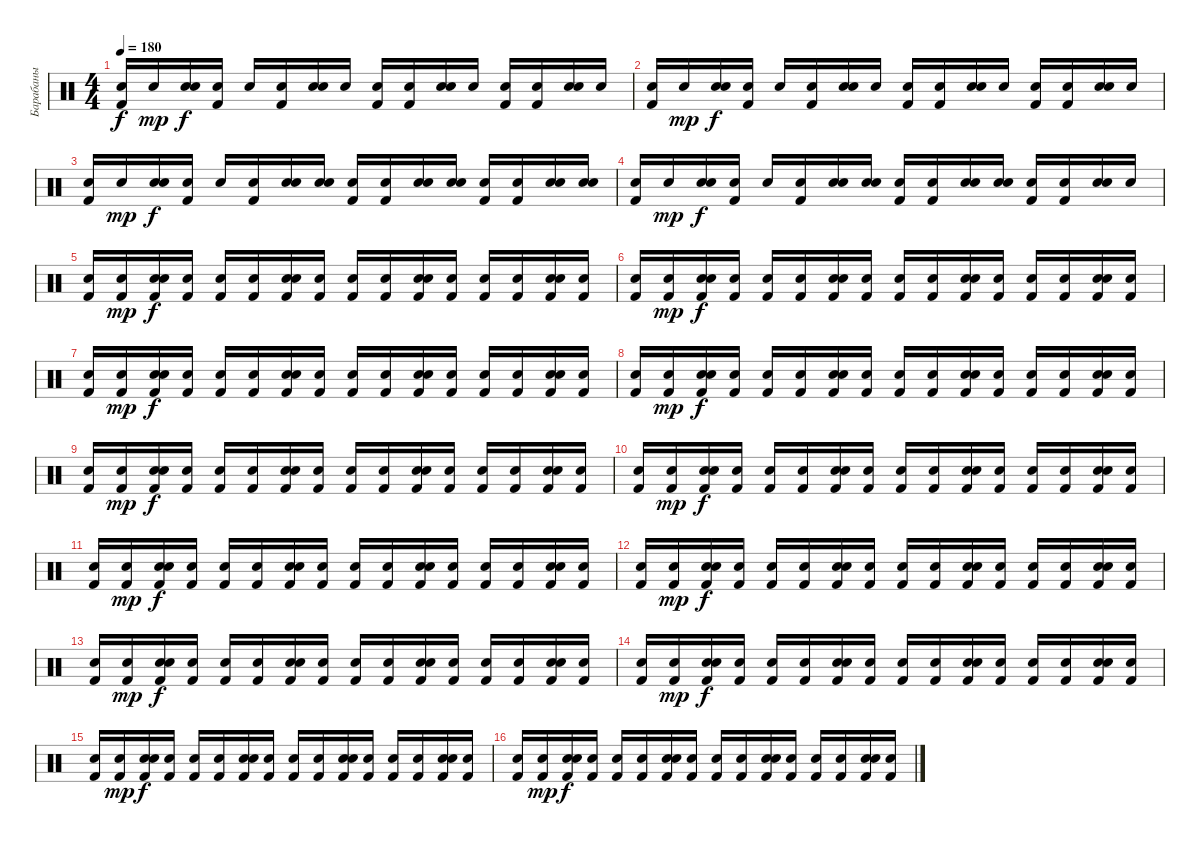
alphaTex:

\track ("Барабаны" "Барабаны") {instrument percussion}
\staff {score}
\articulation defaults
\ts (4 4)
\tempo 180
\clef neutral
\ks c
("Snare (hit)" "Kick (hit) 2").16{dy f} "Snare (hit)".16{dy mp} ("Snare (hit)" "Snare (hit) 2").16{dy f} ("Snare (hit)" "Kick (hit) 2").16 "Snare (hit)".16 ("Snare (hit)" "Kick (hit) 2").16 ("Snare (hit)" "Snare (hit) 2").16 "Snare (hit)".16 ("Snare (hit)" "Kick (hit) 2").16 ("Snare (hit)" "Kick (hit) 2").16 ("Snare (hit)" "Snare (hit) 2").16 "Snare (hit)".16 ("Snare (hit)" "Kick (hit) 2").16 ("Snare (hit)" "Kick (hit) 2").16 ("Snare (hit)" "Snare (hit) 2").16 "Snare (hit)".16 |
("Snare (hit)" "Kick (hit) 2").16 "Snare (hit)".16{dy mp} ("Snare (hit)" "Snare (hit) 2").16{dy f} ("Snare (hit)" "Kick (hit) 2").16 "Snare (hit)".16 ("Snare (hit)" "Kick (hit) 2").16 ("Snare (hit)" "Snare (hit) 2").16 "Snare (hit)".16 ("Snare (hit)" "Kick (hit) 2").16 ("Snare (hit)" "Kick (hit) 2").16 ("Snare (hit)" "Snare (hit) 2").16 "Snare (hit)".16 ("Snare (hit)" "Kick (hit) 2").16 ("Snare (hit)" "Kick (hit) 2").16 ("Snare (hit)" "Snare (hit) 2").16 "Snare (hit)".16 |
("Snare (hit)" "Kick (hit) 2").16 "Snare (hit)".16{dy mp} ("Snare (hit)" "Snare (hit) 2").16{dy f} ("Snare (hit)" "Kick (hit) 2").16 "Snare (hit)".16 ("Snare (hit)" "Kick (hit) 2").16 ("Snare (hit)" "Snare (hit) 2").16 ("Snare (hit)" "Snare (hit)").16 ("Snare (hit)" "Kick (hit) 2").16 ("Snare (hit)" "Kick (hit) 2").16 ("Snare (hit)" "Snare (hit) 2").16 ("Snare (hit)" "Snare (hit)").16 ("Snare (hit)" "Kick (hit) 2").16 ("Snare (hit)" "Kick (hit) 2").16 ("Snare (hit)" "Snare (hit) 2").16 ("Snare (hit)" "Snare (hit)").16 |
("Snare (hit)" "Kick (hit) 2").16 "Snare (hit)".16{dy mp} ("Snare (hit)" "Snare (hit) 2").16{dy f} ("Snare (hit)" "Kick (hit) 2").16 "Snare (hit)".16 ("Snare (hit)" "Kick (hit) 2").16 ("Snare (hit)" "Snare (hit) 2").16 ("Snare (hit)" "Snare (hit)").16 ("Snare (hit)" "Kick (hit) 2").16 ("Snare (hit)" "Kick (hit) 2").16 ("Snare (hit)" "Snare (hit) 2").16 ("Snare (hit)" "Snare (hit)").16 ("Snare (hit)" "Kick (hit) 2").16 ("Snare (hit)" "Kick (hit) 2").16 ("Snare (hit)" "Snare (hit) 2").16 "Snare (hit)".16 |
("Snare (hit)" "Kick (hit) 2").16 ("Snare (hit)" "Kick (hit) 2").16{dy mp} ("Snare (hit)" "Snare (hit) 2" "Kick (hit) 2").16{dy f} ("Snare (hit)" "Kick (hit) 2").16 ("Snare (hit)" "Kick (hit) 2").16 ("Snare (hit)" "Kick (hit) 2").16 ("Snare (hit)" "Snare (hit) 2" "Kick (hit) 2").16 ("Snare (hit)" "Kick (hit) 2").16 ("Snare (hit)" "Kick (hit) 2").16 ("Snare (hit)" "Kick (hit) 2").16 ("Snare (hit)" "Snare (hit) 2" "Kick (hit) 2").16 ("Snare (hit)" "Kick (hit) 2").16 ("Snare (hit)" "Kick (hit) 2").16 ("Snare (hit)" "Kick (hit) 2").16 ("Snare (hit)" "Snare (hit) 2" "Kick (hit) 2").16 ("Snare (hit)" "Kick (hit) 2").16 |
("Snare (hit)" "Kick (hit) 2").16 ("Snare (hit)" "Kick (hit) 2").16{dy mp} ("Snare (hit)" "Snare (hit) 2" "Kick (hit) 2").16{dy f} ("Snare (hit)" "Kick (hit) 2").16 ("Snare (hit)" "Kick (hit) 2").16 ("Snare (hit)" "Kick (hit) 2").16 ("Snare (hit)" "Snare (hit) 2" "Kick (hit) 2").16 ("Snare (hit)" "Kick (hit) 2").16 ("Snare (hit)" "Kick (hit) 2").16 ("Snare (hit)" "Kick (hit) 2").16 ("Snare (hit)" "Snare (hit) 2" "Kick (hit) 2").16 ("Snare (hit)" "Kick (hit) 2").16 ("Snare (hit)" "Kick (hit) 2").16 ("Snare (hit)" "Kick (hit) 2").16 ("Snare (hit)" "Snare (hit) 2" "Kick (hit) 2").16 ("Snare (hit)" "Kick (hit) 2").16 |
("Snare (hit)" "Kick (hit) 2").16 ("Snare (hit)" "Kick (hit) 2").16{dy mp} ("Snare (hit)" "Snare (hit) 2" "Kick (hit) 2").16{dy f} ("Snare (hit)" "Kick (hit) 2").16 ("Snare (hit)" "Kick (hit) 2").16 ("Snare (hit)" "Kick (hit) 2").16 ("Snare (hit)" "Snare (hit) 2" "Kick (hit) 2").16 ("Snare (hit)" "Kick (hit) 2").16 ("Snare (hit)" "Kick (hit) 2").16 ("Snare (hit)" "Kick (hit) 2").16 ("Snare (hit)" "Snare (hit) 2" "Kick (hit) 2").16 ("Snare (hit)" "Kick (hit) 2").16 ("Snare (hit)" "Kick (hit) 2").16 ("Snare (hit)" "Kick (hit) 2").16 ("Snare (hit)" "Snare (hit) 2" "Kick (hit) 2").16 ("Snare (hit)" "Kick (hit) 2").16 |
("Snare (hit)" "Kick (hit) 2").16 ("Snare (hit)" "Kick (hit) 2").16{dy mp} ("Snare (hit)" "Snare (hit) 2" "Kick (hit) 2").16{dy f} ("Snare (hit)" "Kick (hit) 2").16 ("Snare (hit)" "Kick (hit) 2").16 ("Snare (hit)" "Kick (hit) 2").16 ("Snare (hit)" "Snare (hit) 2" "Kick (hit) 2").16 ("Snare (hit)" "Kick (hit) 2").16 ("Snare (hit)" "Kick (hit) 2").16 ("Snare (hit)" "Kick (hit) 2").16 ("Snare (hit)" "Snare (hit) 2" "Kick (hit) 2").16 ("Snare (hit)" "Kick (hit) 2").16 ("Snare (hit)" "Kick (hit) 2").16 ("Snare (hit)" "Kick (hit) 2").16 ("Snare (hit)" "Snare (hit) 2" "Kick (hit) 2").16 ("Snare (hit)" "Kick (hit) 2").16 |
("Snare (hit)" "Kick (hit) 2").16 ("Snare (hit)" "Kick (hit) 2").16{dy mp} ("Snare (hit)" "Snare (hit) 2" "Kick (hit) 2").16{dy f} ("Snare (hit)" "Kick (hit) 2").16 ("Snare (hit)" "Kick (hit) 2").16 ("Snare (hit)" "Kick (hit) 2").16 ("Snare (hit)" "Snare (hit) 2" "Kick (hit) 2").16 ("Snare (hit)" "Kick (hit) 2").16 ("Snare (hit)" "Kick (hit) 2").16 ("Snare (hit)" "Kick (hit) 2").16 ("Snare (hit)" "Snare (hit) 2" "Kick (hit) 2").16 ("Snare (hit)" "Kick (hit) 2").16 ("Snare (hit)" "Kick (hit) 2").16 ("Snare (hit)" "Kick (hit) 2").16 ("Snare (hit)" "Snare (hit) 2" "Kick (hit) 2").16 ("Snare (hit)" "Kick (hit) 2").16 |
("Snare (hit)" "Kick (hit) 2").16 ("Snare (hit)" "Kick (hit) 2").16{dy mp} ("Snare (hit)" "Snare (hit) 2" "Kick (hit) 2").16{dy f} ("Snare (hit)" "Kick (hit) 2").16 ("Snare (hit)" "Kick (hit) 2").16 ("Snare (hit)" "Kick (hit) 2").16 ("Snare (hit)" "Snare (hit) 2" "Kick (hit) 2").16 ("Snare (hit)" "Kick (hit) 2").16 ("Snare (hit)" "Kick (hit) 2").16 ("Snare (hit)" "Kick (hit) 2").16 ("Snare (hit)" "Snare (hit) 2" "Kick (hit) 2").16 ("Snare (hit)" "Kick (hit) 2").16 ("Snare (hit)" "Kick (hit) 2").16 ("Snare (hit)" "Kick (hit) 2").16 ("Snare (hit)" "Snare (hit) 2" "Kick (hit) 2").16 ("Snare (hit)" "Kick (hit) 2").16 |
("Snare (hit)" "Kick (hit) 2").16 ("Snare (hit)" "Kick (hit) 2").16{dy mp} ("Snare (hit)" "Snare (hit) 2" "Kick (hit) 2").16{dy f} ("Snare (hit)" "Kick (hit) 2").16 ("Snare (hit)" "Kick (hit) 2").16 ("Snare (hit)" "Kick (hit) 2").16 ("Snare (hit)" "Snare (hit) 2" "Kick (hit) 2").16 ("Snare (hit)" "Kick (hit) 2").16 ("Snare (hit)" "Kick (hit) 2").16 ("Snare (hit)" "Kick (hit) 2").16 ("Snare (hit)" "Snare (hit) 2" "Kick (hit) 2").16 ("Snare (hit)" "Kick (hit) 2").16 ("Snare (hit)" "Kick (hit) 2").16 ("Snare (hit)" "Kick (hit) 2").16 ("Snare (hit)" "Snare (hit) 2" "Kick (hit) 2").16 ("Snare (hit)" "Kick (hit) 2").16 |
("Snare (hit)" "Kick (hit) 2").16 ("Snare (hit)" "Kick (hit) 2").16{dy mp} ("Snare (hit)" "Snare (hit) 2" "Kick (hit) 2").16{dy f} ("Snare (hit)" "Kick (hit) 2").16 ("Snare (hit)" "Kick (hit) 2").16 ("Snare (hit)" "Kick (hit) 2").16 ("Snare (hit)" "Snare (hit) 2" "Kick (hit) 2").16 ("Snare (hit)" "Kick (hit) 2").16 ("Snare (hit)" "Kick (hit) 2").16 ("Snare (hit)" "Kick (hit) 2").16 ("Snare (hit)" "Snare (hit) 2" "Kick (hit) 2").16 ("Snare (hit)" "Kick (hit) 2").16 ("Snare (hit)" "Kick (hit) 2").16 ("Snare (hit)" "Kick (hit) 2").16 ("Snare (hit)" "Snare (hit) 2" "Kick (hit) 2").16 ("Snare (hit)" "Kick (hit) 2").16 |
("Snare (hit)" "Kick (hit) 2").16 ("Snare (hit)" "Kick (hit) 2").16{dy mp} ("Snare (hit)" "Snare (hit) 2" "Kick (hit) 2").16{dy f} ("Snare (hit)" "Kick (hit) 2").16 ("Snare (hit)" "Kick (hit) 2").16 ("Snare (hit)" "Kick (hit) 2").16 ("Snare (hit)" "Snare (hit) 2" "Kick (hit) 2").16 ("Snare (hit)" "Kick (hit) 2").16 ("Snare (hit)" "Kick (hit) 2").16 ("Snare (hit)" "Kick (hit) 2").16 ("Snare (hit)" "Snare (hit) 2" "Kick (hit) 2").16 ("Snare (hit)" "Kick (hit) 2").16 ("Snare (hit)" "Kick (hit) 2").16 ("Snare (hit)" "Kick (hit) 2").16 ("Snare (hit)" "Snare (hit) 2" "Kick (hit) 2").16 ("Snare (hit)" "Kick (hit) 2").16 |
("Snare (hit)" "Kick (hit) 2").16 ("Snare (hit)" "Kick (hit) 2").16{dy mp} ("Snare (hit)" "Snare (hit) 2" "Kick (hit) 2").16{dy f} ("Snare (hit)" "Kick (hit) 2").16 ("Snare (hit)" "Kick (hit) 2").16 ("Snare (hit)" "Kick (hit) 2").16 ("Snare (hit)" "Snare (hit) 2" "Kick (hit) 2").16 ("Snare (hit)" "Kick (hit) 2").16 ("Snare (hit)" "Kick (hit) 2").16 ("Snare (hit)" "Kick (hit) 2").16 ("Snare (hit)" "Snare (hit) 2" "Kick (hit) 2").16 ("Snare (hit)" "Kick (hit) 2").16 ("Snare (hit)" "Kick (hit) 2").16 ("Snare (hit)" "Kick (hit) 2").16 ("Snare (hit)" "Snare (hit) 2" "Kick (hit) 2").16 ("Snare (hit)" "Kick (hit) 2").16 |
("Snare (hit)" "Kick (hit) 2").16 ("Snare (hit)" "Kick (hit) 2").16{dy mp} ("Snare (hit)" "Snare (hit) 2" "Kick (hit) 2").16{dy f} ("Snare (hit)" "Kick (hit) 2").16 ("Snare (hit)" "Kick (hit) 2").16 ("Snare (hit)" "Kick (hit) 2").16 ("Snare (hit)" "Snare (hit) 2" "Kick (hit) 2").16 ("Snare (hit)" "Kick (hit) 2").16 ("Snare (hit)" "Kick (hit) 2").16 ("Snare (hit)" "Kick (hit) 2").16 ("Snare (hit)" "Snare (hit) 2" "Kick (hit) 2").16 ("Snare (hit)" "Kick (hit) 2").16 ("Snare (hit)" "Kick (hit) 2").16 ("Snare (hit)" "Kick (hit) 2").16 ("Snare (hit)" "Snare (hit) 2" "Kick (hit) 2").16 ("Snare (hit)" "Kick (hit) 2").16 |
("Snare (hit)" "Kick (hit) 2").16 ("Snare (hit)" "Kick (hit) 2").16{dy mp} ("Snare (hit)" "Snare (hit) 2" "Kick (hit) 2").16{dy f} ("Snare (hit)" "Kick (hit) 2").16 ("Snare (hit)" "Kick (hit) 2").16 ("Snare (hit)" "Kick (hit) 2").16 ("Snare (hit)" "Snare (hit) 2" "Kick (hit) 2").16 ("Snare (hit)" "Kick (hit) 2").16 ("Snare (hit)" "Kick (hit) 2").16 ("Snare (hit)" "Kick (hit) 2").16 ("Snare (hit)" "Snare (hit) 2" "Kick (hit) 2").16 ("Snare (hit)" "Kick (hit) 2").16 ("Snare (hit)" "Kick (hit) 2").16 ("Snare (hit)" "Kick (hit) 2").16 ("Snare (hit)" "Snare (hit) 2" "Kick (hit) 2").16 ("Snare (hit)" "Kick (hit) 2").16
